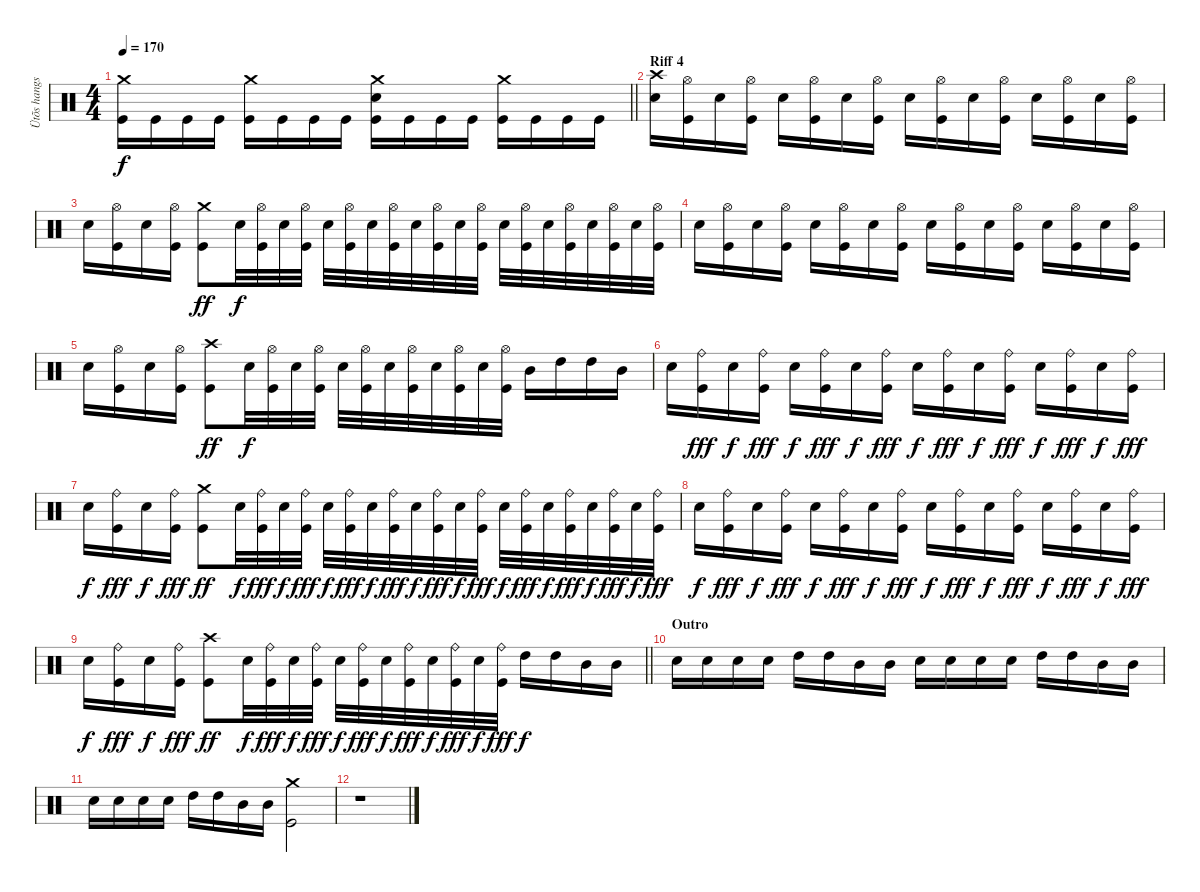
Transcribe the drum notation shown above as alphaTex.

\track ("Ütõs hangszer" "Ütõs hangs") {instrument percussion}
\staff {score}
\articulation defaults
\ts (4 4)
\tempo 170
\clef neutral
\barLineRight lightlight
\ks c
("Crash medium (hit)" "Kick (hit)").16{dy f} "Kick (hit)".16 "Kick (hit)".16 "Kick (hit)".16 ("Crash medium (hit)" "Kick (hit)").16 "Kick (hit)".16 "Kick (hit)".16 "Kick (hit)".16 ("Crash medium (hit)" "Electric Snare (hit)" "Kick (hit)").16 "Kick (hit)".16 "Kick (hit)".16 "Kick (hit)".16 ("Crash medium (hit)" "Kick (hit)").16 "Kick (hit)".16 "Kick (hit)".16 "Kick (hit)".16 |
\section ("" "Riff 4")
("Crash high (hit)" "Electric Snare (hit)").16 ("Hi-Hat (open)" "Kick (hit)").16 "Electric Snare (hit)".16 ("Hi-Hat (open)" "Kick (hit)").16 "Electric Snare (hit)".16 ("Hi-Hat (open)" "Kick (hit)").16 "Electric Snare (hit)".16 ("Hi-Hat (open)" "Kick (hit)").16 "Electric Snare (hit)".16 ("Hi-Hat (open)" "Kick (hit)").16 "Electric Snare (hit)".16 ("Hi-Hat (open)" "Kick (hit)").16 "Electric Snare (hit)".16 ("Hi-Hat (open)" "Kick (hit)").16 "Electric Snare (hit)".16 ("Hi-Hat (open)" "Kick (hit)").16 |
"Electric Snare (hit)".16 ("Hi-Hat (open)" "Kick (hit)").16 "Electric Snare (hit)".16 ("Hi-Hat (open)" "Kick (hit)").16 ("Crash medium (hit)" "Kick (hit)").8{dy ff} "Electric Snare (hit)".32{dy f} ("Hi-Hat (open)" "Kick (hit)").32 "Electric Snare (hit)".32 ("Hi-Hat (open)" "Kick (hit)").32 "Electric Snare (hit)".32 ("Hi-Hat (open)" "Kick (hit)").32 "Electric Snare (hit)".32 ("Hi-Hat (open)" "Kick (hit)").32 "Electric Snare (hit)".32 ("Hi-Hat (open)" "Kick (hit)").32 "Electric Snare (hit)".32 ("Hi-Hat (open)" "Kick (hit)").32 "Electric Snare (hit)".32 ("Hi-Hat (open)" "Kick (hit)").32 "Electric Snare (hit)".32 ("Hi-Hat (open)" "Kick (hit)").32 "Electric Snare (hit)".32 ("Hi-Hat (open)" "Kick (hit)").32 "Electric Snare (hit)".32 ("Hi-Hat (open)" "Kick (hit)").32 |
"Electric Snare (hit)".16 ("Hi-Hat (open)" "Kick (hit)").16 "Electric Snare (hit)".16 ("Hi-Hat (open)" "Kick (hit)").16 "Electric Snare (hit)".16 ("Hi-Hat (open)" "Kick (hit)").16 "Electric Snare (hit)".16 ("Hi-Hat (open)" "Kick (hit)").16 "Electric Snare (hit)".16 ("Hi-Hat (open)" "Kick (hit)").16 "Electric Snare (hit)".16 ("Hi-Hat (open)" "Kick (hit)").16 "Electric Snare (hit)".16 ("Hi-Hat (open)" "Kick (hit)").16 "Electric Snare (hit)".16 ("Hi-Hat (open)" "Kick (hit)").16 |
"Electric Snare (hit)".16 ("Hi-Hat (open)" "Kick (hit)").16 "Electric Snare (hit)".16 ("Hi-Hat (open)" "Kick (hit)").16 ("Crash high (hit)" "Kick (hit)").8{dy ff} "Electric Snare (hit)".32{dy f} ("Hi-Hat (open)" "Kick (hit)").32 "Electric Snare (hit)".32 ("Hi-Hat (open)" "Kick (hit)").32 "Electric Snare (hit)".32 ("Hi-Hat (open)" "Kick (hit)").32 "Electric Snare (hit)".32 ("Hi-Hat (open)" "Kick (hit)").32 "Electric Snare (hit)".32 ("Hi-Hat (open)" "Kick (hit)").32 "Electric Snare (hit)".32 ("Hi-Hat (open)" "Kick (hit)").32 "Mid Tom (hit)".16 "High Tom (hit)".16 "High Tom (hit)".16 "Mid Tom (hit)".16 |
"Electric Snare (hit)".16 ("Ride (bell)" "Kick (hit)").16{dy fff} "Electric Snare (hit)".16{dy f} ("Ride (bell)" "Kick (hit)").16{dy fff} "Electric Snare (hit)".16{dy f} ("Ride (bell)" "Kick (hit)").16{dy fff} "Electric Snare (hit)".16{dy f} ("Ride (bell)" "Kick (hit)").16{dy fff} "Electric Snare (hit)".16{dy f} ("Ride (bell)" "Kick (hit)").16{dy fff} "Electric Snare (hit)".16{dy f} ("Ride (bell)" "Kick (hit)").16{dy fff} "Electric Snare (hit)".16{dy f} ("Ride (bell)" "Kick (hit)").16{dy fff} "Electric Snare (hit)".16{dy f} ("Ride (bell)" "Kick (hit)").16{dy fff} |
"Electric Snare (hit)".16{dy f} ("Ride (bell)" "Kick (hit)").16{dy fff} "Electric Snare (hit)".16{dy f} ("Ride (bell)" "Kick (hit)").16{dy fff} ("Crash medium (hit)" "Kick (hit)").8{dy ff} "Electric Snare (hit)".32{dy f} ("Ride (bell)" "Kick (hit)").32{dy fff} "Electric Snare (hit)".32{dy f} ("Ride (bell)" "Kick (hit)").32{dy fff} "Electric Snare (hit)".32{dy f} ("Ride (bell)" "Kick (hit)").32{dy fff} "Electric Snare (hit)".32{dy f} ("Ride (bell)" "Kick (hit)").32{dy fff} "Electric Snare (hit)".32{dy f} ("Ride (bell)" "Kick (hit)").32{dy fff} "Electric Snare (hit)".32{dy f} ("Ride (bell)" "Kick (hit)").32{dy fff} "Electric Snare (hit)".32{dy f} ("Ride (bell)" "Kick (hit)").32{dy fff} "Electric Snare (hit)".32{dy f} ("Ride (bell)" "Kick (hit)").32{dy fff} "Electric Snare (hit)".32{dy f} ("Ride (bell)" "Kick (hit)").32{dy fff} "Electric Snare (hit)".32{dy f} ("Ride (bell)" "Kick (hit)").32{dy fff} |
"Electric Snare (hit)".16{dy f} ("Ride (bell)" "Kick (hit)").16{dy fff} "Electric Snare (hit)".16{dy f} ("Ride (bell)" "Kick (hit)").16{dy fff} "Electric Snare (hit)".16{dy f} ("Ride (bell)" "Kick (hit)").16{dy fff} "Electric Snare (hit)".16{dy f} ("Ride (bell)" "Kick (hit)").16{dy fff} "Electric Snare (hit)".16{dy f} ("Ride (bell)" "Kick (hit)").16{dy fff} "Electric Snare (hit)".16{dy f} ("Ride (bell)" "Kick (hit)").16{dy fff} "Electric Snare (hit)".16{dy f} ("Ride (bell)" "Kick (hit)").16{dy fff} "Electric Snare (hit)".16{dy f} ("Ride (bell)" "Kick (hit)").16{dy fff} |
\barLineRight lightlight "Electric Snare (hit)".16{dy f}
("Ride (bell)" "Kick (hit)").16{dy fff} "Electric Snare (hit)".16{dy f} ("Ride (bell)" "Kick (hit)").16{dy fff} ("Crash high (hit)" "Kick (hit)").8{dy ff} "Electric Snare (hit)".32{dy f} ("Ride (bell)" "Kick (hit)").32{dy fff} "Electric Snare (hit)".32{dy f} ("Ride (bell)" "Kick (hit)").32{dy fff} "Electric Snare (hit)".32{dy f} ("Ride (bell)" "Kick (hit)").32{dy fff} "Electric Snare (hit)".32{dy f} ("Ride (bell)" "Kick (hit)").32{dy fff} "Electric Snare (hit)".32{dy f} ("Ride (bell)" "Kick (hit)").32{dy fff} "Electric Snare (hit)".32{dy f} ("Ride (bell)" "Kick (hit)").32{dy fff} "High Tom (hit)".16{dy f} "High Tom (hit)".16 "Mid Tom (hit)".16 "Mid Tom (hit)".16 |
\section ("" "Outro")
"Electric Snare (hit)".16 "Electric Snare (hit)".16 "Electric Snare (hit)".16 "Electric Snare (hit)".16 "High Tom (hit)".16 "High Tom (hit)".16 "Mid Tom (hit)".16 "Mid Tom (hit)".16 "Electric Snare (hit)".16 "Electric Snare (hit)".16 "Electric Snare (hit)".16 "Electric Snare (hit)".16 "High Tom (hit)".16 "High Tom (hit)".16 "Mid Tom (hit)".16 "Mid Tom (hit)".16 |
"Electric Snare (hit)".16 "Electric Snare (hit)".16 "Electric Snare (hit)".16 "Electric Snare (hit)".16 "High Tom (hit)".16 "High Tom (hit)".16 "Mid Tom (hit)".16 "Mid Tom (hit)".16 ("Crash medium (hit)" "Kick (hit)").2 |
r.1
